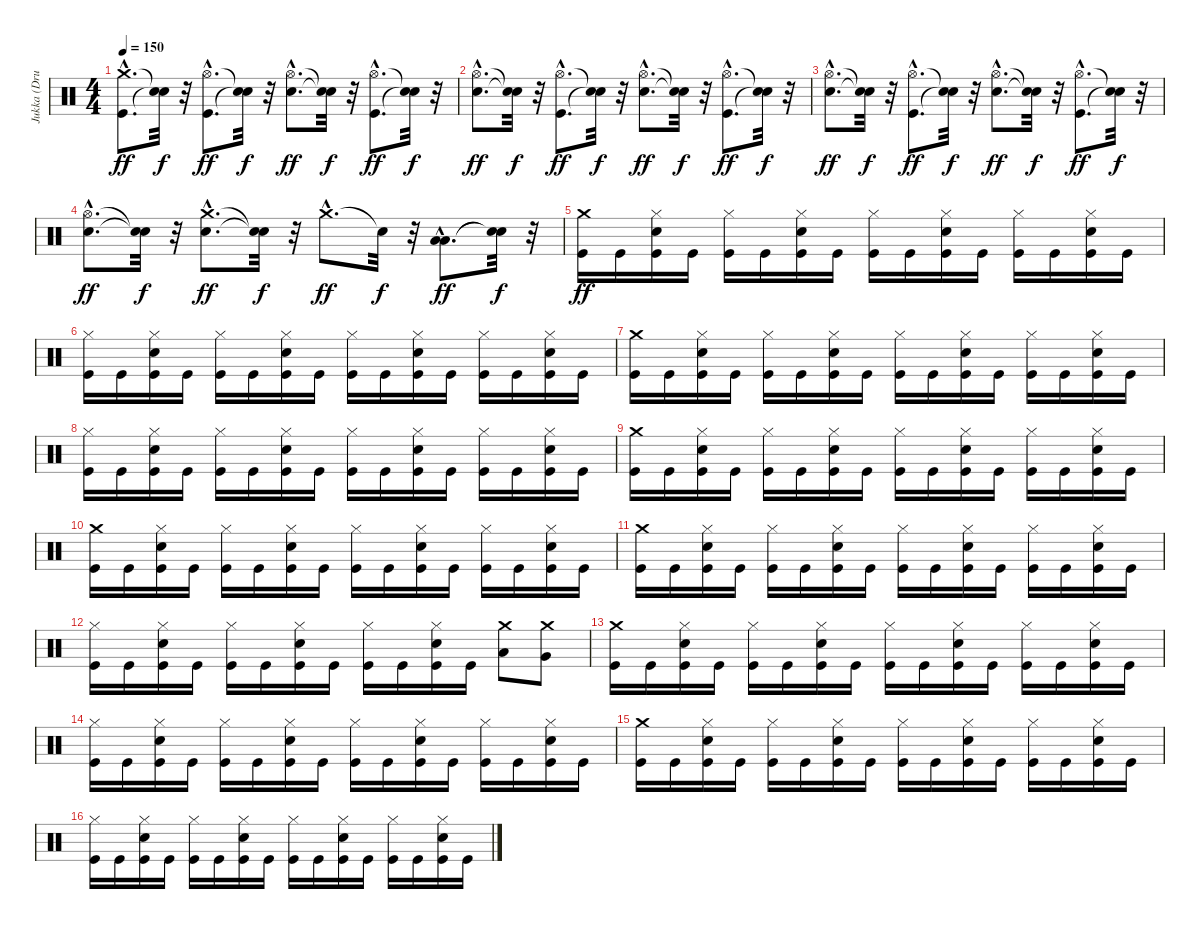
\track ("Jukka (Drums)" "Jukka (Dru") {instrument percussion}
\staff {score}
\articulation defaults
\ts (4 4)
\tempo 150
\clef neutral
\ks c
("Kick (hit)"{hac} "Crash medium (hit)"{hac}).8{d dy ff} ("Snare (hit)"{t} "Snare (hit)"{t}).32{dy f} r.32 ("Kick (hit)"{hac} "Hi-Hat (open)"{hac}).8{d dy ff} ("Snare (hit)"{t} "Snare (hit)"{t}).32{dy f} r.32 ("Electric Snare (hit)"{hac} "Hi-Hat (open)"{hac}).8{d dy ff} ("Snare (hit)"{t} "Snare (hit)"{t}).32{dy f} r.32 ("Kick (hit)"{hac} "Hi-Hat (open)"{hac}).8{d dy ff} ("Snare (hit)"{t} "Snare (hit)"{t}).32{dy f} r.32 |
("Electric Snare (hit)"{hac} "Hi-Hat (open)"{hac}).8{d dy ff} ("Snare (hit)"{t} "Snare (hit)"{t}).32{dy f} r.32 ("Kick (hit)"{hac} "Hi-Hat (open)"{hac}).8{d dy ff} ("Snare (hit)"{t} "Snare (hit)"{t}).32{dy f} r.32 ("Electric Snare (hit)"{hac} "Hi-Hat (open)"{hac}).8{d dy ff} ("Snare (hit)"{t} "Snare (hit)"{t}).32{dy f} r.32 ("Kick (hit)"{hac} "Hi-Hat (open)"{hac}).8{d dy ff} ("Snare (hit)"{t} "Snare (hit)"{t}).32{dy f} r.32 |
("Electric Snare (hit)"{hac} "Hi-Hat (open)"{hac}).8{d dy ff} ("Snare (hit)"{t} "Snare (hit)"{t}).32{dy f} r.32 ("Kick (hit)"{hac} "Hi-Hat (open)"{hac}).8{d dy ff} ("Snare (hit)"{t} "Snare (hit)"{t}).32{dy f} r.32 ("Electric Snare (hit)"{hac} "Hi-Hat (open)"{hac}).8{d dy ff} ("Snare (hit)"{t} "Snare (hit)"{t}).32{dy f} r.32 ("Kick (hit)"{hac} "Hi-Hat (open)"{hac}).8{d dy ff} ("Snare (hit)"{t} "Snare (hit)"{t}).32{dy f} r.32 |
("Electric Snare (hit)"{hac} "Hi-Hat (open)"{hac}).8{d dy ff} ("Snare (hit)"{t} "Snare (hit)"{t}).32{dy f} r.32 ("Electric Snare (hit)"{hac} "Crash medium (hit)"{hac}).8{d dy ff} ("Snare (hit)"{t} "Snare (hit)"{t}).32{dy f} r.32 "Crash medium (hit)"{hac}.8{d dy ff} "Snare (hit)"{t}.32{dy f} r.32 ("Low Floor Tom (hit)"{hac} "Low Tom (hit)"{hac}).8{d dy ff} ("Snare (hit)"{t} "Snare (hit)"{t}).32{dy f} r.32 |
("Kick (hit)" "Crash medium (hit)").16{dy ff} "Kick (hit)".16 ("Kick (hit)" "Electric Snare (hit)" "Hi-Hat (closed)").16 "Kick (hit)".16 ("Kick (hit)" "Hi-Hat (closed)").16 "Kick (hit)".16 ("Kick (hit)" "Electric Snare (hit)" "Hi-Hat (closed)").16 "Kick (hit)".16 ("Kick (hit)" "Hi-Hat (closed)").16 "Kick (hit)".16 ("Kick (hit)" "Electric Snare (hit)" "Hi-Hat (closed)").16 "Kick (hit)".16 ("Kick (hit)" "Hi-Hat (closed)").16 "Kick (hit)".16 ("Kick (hit)" "Electric Snare (hit)" "Hi-Hat (closed)").16 "Kick (hit)".16 |
("Kick (hit)" "Hi-Hat (closed)").16 "Kick (hit)".16 ("Kick (hit)" "Electric Snare (hit)" "Hi-Hat (closed)").16 "Kick (hit)".16 ("Kick (hit)" "Hi-Hat (closed)").16 "Kick (hit)".16 ("Kick (hit)" "Electric Snare (hit)" "Hi-Hat (closed)").16 "Kick (hit)".16 ("Kick (hit)" "Hi-Hat (closed)").16 "Kick (hit)".16 ("Kick (hit)" "Electric Snare (hit)" "Hi-Hat (closed)").16 "Kick (hit)".16 ("Kick (hit)" "Hi-Hat (closed)").16 "Kick (hit)".16 ("Kick (hit)" "Electric Snare (hit)" "Hi-Hat (closed)").16 "Kick (hit)".16 |
("Kick (hit)" "Crash medium (hit)").16 "Kick (hit)".16 ("Kick (hit)" "Electric Snare (hit)" "Hi-Hat (closed)").16 "Kick (hit)".16 ("Kick (hit)" "Hi-Hat (closed)").16 "Kick (hit)".16 ("Kick (hit)" "Electric Snare (hit)" "Hi-Hat (closed)").16 "Kick (hit)".16 ("Kick (hit)" "Hi-Hat (closed)").16 "Kick (hit)".16 ("Kick (hit)" "Electric Snare (hit)" "Hi-Hat (closed)").16 "Kick (hit)".16 ("Kick (hit)" "Hi-Hat (closed)").16 "Kick (hit)".16 ("Kick (hit)" "Electric Snare (hit)" "Hi-Hat (closed)").16 "Kick (hit)".16 |
("Kick (hit)" "Hi-Hat (closed)").16 "Kick (hit)".16 ("Kick (hit)" "Electric Snare (hit)" "Hi-Hat (closed)").16 "Kick (hit)".16 ("Kick (hit)" "Hi-Hat (closed)").16 "Kick (hit)".16 ("Kick (hit)" "Electric Snare (hit)" "Hi-Hat (closed)").16 "Kick (hit)".16 ("Kick (hit)" "Hi-Hat (closed)").16 "Kick (hit)".16 ("Kick (hit)" "Electric Snare (hit)" "Hi-Hat (closed)").16 "Kick (hit)".16 ("Kick (hit)" "Hi-Hat (closed)").16 "Kick (hit)".16 ("Kick (hit)" "Electric Snare (hit)" "Hi-Hat (closed)").16 "Kick (hit)".16 |
("Kick (hit)" "Crash medium (hit)").16 "Kick (hit)".16 ("Kick (hit)" "Electric Snare (hit)" "Hi-Hat (closed)").16 "Kick (hit)".16 ("Kick (hit)" "Hi-Hat (closed)").16 "Kick (hit)".16 ("Kick (hit)" "Electric Snare (hit)" "Hi-Hat (closed)").16 "Kick (hit)".16 ("Kick (hit)" "Hi-Hat (closed)").16 "Kick (hit)".16 ("Kick (hit)" "Electric Snare (hit)" "Hi-Hat (closed)").16 "Kick (hit)".16 ("Kick (hit)" "Hi-Hat (closed)").16 "Kick (hit)".16 ("Kick (hit)" "Electric Snare (hit)" "Hi-Hat (closed)").16 "Kick (hit)".16 |
("Kick (hit)" "Crash medium (hit)").16 "Kick (hit)".16 ("Kick (hit)" "Electric Snare (hit)" "Hi-Hat (closed)").16 "Kick (hit)".16 ("Kick (hit)" "Hi-Hat (closed)").16 "Kick (hit)".16 ("Kick (hit)" "Electric Snare (hit)" "Hi-Hat (closed)").16 "Kick (hit)".16 ("Kick (hit)" "Hi-Hat (closed)").16 "Kick (hit)".16 ("Kick (hit)" "Electric Snare (hit)" "Hi-Hat (closed)").16 "Kick (hit)".16 ("Kick (hit)" "Hi-Hat (closed)").16 "Kick (hit)".16 ("Kick (hit)" "Electric Snare (hit)" "Hi-Hat (closed)").16 "Kick (hit)".16 |
("Kick (hit)" "Crash medium (hit)").16 "Kick (hit)".16 ("Kick (hit)" "Electric Snare (hit)" "Hi-Hat (closed)").16 "Kick (hit)".16 ("Kick (hit)" "Hi-Hat (closed)").16 "Kick (hit)".16 ("Kick (hit)" "Electric Snare (hit)" "Hi-Hat (closed)").16 "Kick (hit)".16 ("Kick (hit)" "Hi-Hat (closed)").16 "Kick (hit)".16 ("Kick (hit)" "Electric Snare (hit)" "Hi-Hat (closed)").16 "Kick (hit)".16 ("Kick (hit)" "Hi-Hat (closed)").16 "Kick (hit)".16 ("Kick (hit)" "Electric Snare (hit)" "Hi-Hat (closed)").16 "Kick (hit)".16 |
("Kick (hit)" "Hi-Hat (closed)").16 "Kick (hit)".16 ("Kick (hit)" "Electric Snare (hit)" "Hi-Hat (closed)").16 "Kick (hit)".16 ("Kick (hit)" "Hi-Hat (closed)").16 "Kick (hit)".16 ("Kick (hit)" "Electric Snare (hit)" "Hi-Hat (closed)").16 "Kick (hit)".16 ("Kick (hit)" "Hi-Hat (closed)").16 "Kick (hit)".16 ("Kick (hit)" "Electric Snare (hit)" "Hi-Hat (closed)").16 "Kick (hit)".16 ("Low Tom (hit)" "Crash medium (hit)").8 ("Very Low Tom (hit)" "Crash medium (hit)").8 |
("Kick (hit)" "Crash medium (hit)").16 "Kick (hit)".16 ("Kick (hit)" "Electric Snare (hit)" "Hi-Hat (closed)").16 "Kick (hit)".16 ("Kick (hit)" "Hi-Hat (closed)").16 "Kick (hit)".16 ("Kick (hit)" "Electric Snare (hit)" "Hi-Hat (closed)").16 "Kick (hit)".16 ("Kick (hit)" "Hi-Hat (closed)").16 "Kick (hit)".16 ("Kick (hit)" "Electric Snare (hit)" "Hi-Hat (closed)").16 "Kick (hit)".16 ("Kick (hit)" "Hi-Hat (closed)").16 "Kick (hit)".16 ("Kick (hit)" "Electric Snare (hit)" "Hi-Hat (closed)").16 "Kick (hit)".16 |
("Kick (hit)" "Hi-Hat (closed)").16 "Kick (hit)".16 ("Kick (hit)" "Electric Snare (hit)" "Hi-Hat (closed)").16 "Kick (hit)".16 ("Kick (hit)" "Hi-Hat (closed)").16 "Kick (hit)".16 ("Kick (hit)" "Electric Snare (hit)" "Hi-Hat (closed)").16 "Kick (hit)".16 ("Kick (hit)" "Hi-Hat (closed)").16 "Kick (hit)".16 ("Kick (hit)" "Electric Snare (hit)" "Hi-Hat (closed)").16 "Kick (hit)".16 ("Kick (hit)" "Hi-Hat (closed)").16 "Kick (hit)".16 ("Kick (hit)" "Electric Snare (hit)" "Hi-Hat (closed)").16 "Kick (hit)".16 |
("Kick (hit)" "Crash medium (hit)").16 "Kick (hit)".16 ("Kick (hit)" "Electric Snare (hit)" "Hi-Hat (closed)").16 "Kick (hit)".16 ("Kick (hit)" "Hi-Hat (closed)").16 "Kick (hit)".16 ("Kick (hit)" "Electric Snare (hit)" "Hi-Hat (closed)").16 "Kick (hit)".16 ("Kick (hit)" "Hi-Hat (closed)").16 "Kick (hit)".16 ("Kick (hit)" "Electric Snare (hit)" "Hi-Hat (closed)").16 "Kick (hit)".16 ("Kick (hit)" "Hi-Hat (closed)").16 "Kick (hit)".16 ("Kick (hit)" "Electric Snare (hit)" "Hi-Hat (closed)").16 "Kick (hit)".16 |
("Kick (hit)" "Hi-Hat (closed)").16 "Kick (hit)".16 ("Kick (hit)" "Electric Snare (hit)" "Hi-Hat (closed)").16 "Kick (hit)".16 ("Kick (hit)" "Hi-Hat (closed)").16 "Kick (hit)".16 ("Kick (hit)" "Electric Snare (hit)" "Hi-Hat (closed)").16 "Kick (hit)".16 ("Kick (hit)" "Hi-Hat (closed)").16 "Kick (hit)".16 ("Kick (hit)" "Electric Snare (hit)" "Hi-Hat (closed)").16 "Kick (hit)".16 ("Kick (hit)" "Hi-Hat (closed)").16 "Kick (hit)".16 ("Kick (hit)" "Electric Snare (hit)" "Hi-Hat (closed)").16 "Kick (hit)".16
